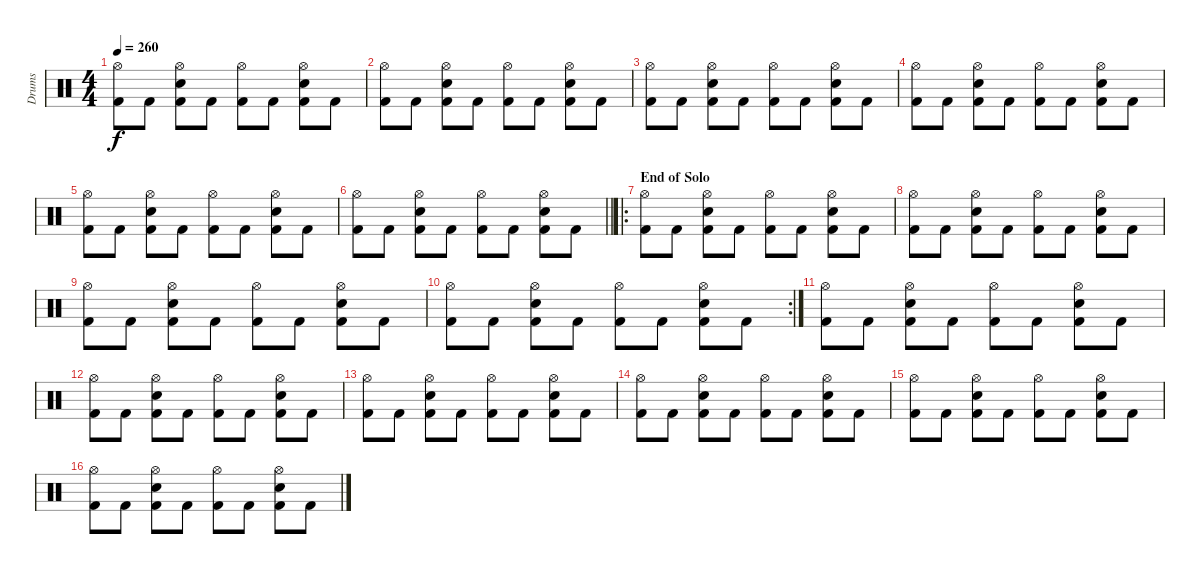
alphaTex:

\track ("Drums" "Drums") {instrument percussion}
\staff {score}
\articulation defaults
\ts (4 4)
\tempo 260
\clef neutral
\ks c
("Hi-Hat (open)" "Kick (hit) 2").8{dy f} "Kick (hit) 2".8 ("Hi-Hat (open)" "Snare (hit) 2" "Kick (hit) 2").8 "Kick (hit) 2".8 ("Hi-Hat (open)" "Kick (hit) 2").8 "Kick (hit) 2".8 ("Hi-Hat (open)" "Snare (hit) 2" "Kick (hit) 2").8 "Kick (hit) 2".8 |
("Hi-Hat (open)" "Kick (hit) 2").8 "Kick (hit) 2".8 ("Hi-Hat (open)" "Snare (hit) 2" "Kick (hit) 2").8 "Kick (hit) 2".8 ("Hi-Hat (open)" "Kick (hit) 2").8 "Kick (hit) 2".8 ("Hi-Hat (open)" "Snare (hit) 2" "Kick (hit) 2").8 "Kick (hit) 2".8 |
("Hi-Hat (open)" "Kick (hit) 2").8 "Kick (hit) 2".8 ("Hi-Hat (open)" "Snare (hit) 2" "Kick (hit) 2").8 "Kick (hit) 2".8 ("Hi-Hat (open)" "Kick (hit) 2").8 "Kick (hit) 2".8 ("Hi-Hat (open)" "Snare (hit) 2" "Kick (hit) 2").8 "Kick (hit) 2".8 |
("Hi-Hat (open)" "Kick (hit) 2").8 "Kick (hit) 2".8 ("Hi-Hat (open)" "Snare (hit) 2" "Kick (hit) 2").8 "Kick (hit) 2".8 ("Hi-Hat (open)" "Kick (hit) 2").8 "Kick (hit) 2".8 ("Hi-Hat (open)" "Snare (hit) 2" "Kick (hit) 2").8 "Kick (hit) 2".8 |
("Hi-Hat (open)" "Kick (hit) 2").8 "Kick (hit) 2".8 ("Hi-Hat (open)" "Snare (hit) 2" "Kick (hit) 2").8 "Kick (hit) 2".8 ("Hi-Hat (open)" "Kick (hit) 2").8 "Kick (hit) 2".8 ("Hi-Hat (open)" "Snare (hit) 2" "Kick (hit) 2").8 "Kick (hit) 2".8 |
\barLineRight lightlight
("Hi-Hat (open)" "Kick (hit) 2").8 "Kick (hit) 2".8 ("Hi-Hat (open)" "Snare (hit) 2" "Kick (hit) 2").8 "Kick (hit) 2".8 ("Hi-Hat (open)" "Kick (hit) 2").8 "Kick (hit) 2".8 ("Hi-Hat (open)" "Snare (hit) 2" "Kick (hit) 2").8 "Kick (hit) 2".8 |
\ro
\section ("" "End of Solo")
("Hi-Hat (open)" "Kick (hit) 2").8 "Kick (hit) 2".8 ("Hi-Hat (open)" "Snare (hit) 2" "Kick (hit) 2").8 "Kick (hit) 2".8 ("Hi-Hat (open)" "Kick (hit) 2").8 "Kick (hit) 2".8 ("Hi-Hat (open)" "Snare (hit) 2" "Kick (hit) 2").8 "Kick (hit) 2".8 |
("Hi-Hat (open)" "Kick (hit) 2").8 "Kick (hit) 2".8 ("Hi-Hat (open)" "Snare (hit) 2" "Kick (hit) 2").8 "Kick (hit) 2".8 ("Hi-Hat (open)" "Kick (hit) 2").8 "Kick (hit) 2".8 ("Hi-Hat (open)" "Snare (hit) 2" "Kick (hit) 2").8 "Kick (hit) 2".8 |
("Hi-Hat (open)" "Kick (hit) 2").8 "Kick (hit) 2".8 ("Hi-Hat (open)" "Snare (hit) 2" "Kick (hit) 2").8 "Kick (hit) 2".8 ("Hi-Hat (open)" "Kick (hit) 2").8 "Kick (hit) 2".8 ("Hi-Hat (open)" "Snare (hit) 2" "Kick (hit) 2").8 "Kick (hit) 2".8 |
\rc 2
("Hi-Hat (open)" "Kick (hit) 2").8 "Kick (hit) 2".8 ("Hi-Hat (open)" "Snare (hit) 2" "Kick (hit) 2").8 "Kick (hit) 2".8 ("Hi-Hat (open)" "Kick (hit) 2").8 "Kick (hit) 2".8 ("Hi-Hat (open)" "Snare (hit) 2" "Kick (hit) 2").8 "Kick (hit) 2".8 |
("Hi-Hat (open)" "Kick (hit) 2").8 "Kick (hit) 2".8 ("Hi-Hat (open)" "Snare (hit) 2" "Kick (hit) 2").8 "Kick (hit) 2".8 ("Hi-Hat (open)" "Kick (hit) 2").8 "Kick (hit) 2".8 ("Hi-Hat (open)" "Snare (hit) 2" "Kick (hit) 2").8 "Kick (hit) 2".8 |
("Hi-Hat (open)" "Kick (hit) 2").8 "Kick (hit) 2".8 ("Hi-Hat (open)" "Snare (hit) 2" "Kick (hit) 2").8 "Kick (hit) 2".8 ("Hi-Hat (open)" "Kick (hit) 2").8 "Kick (hit) 2".8 ("Hi-Hat (open)" "Snare (hit) 2" "Kick (hit) 2").8 "Kick (hit) 2".8 |
("Hi-Hat (open)" "Kick (hit) 2").8 "Kick (hit) 2".8 ("Hi-Hat (open)" "Snare (hit) 2" "Kick (hit) 2").8 "Kick (hit) 2".8 ("Hi-Hat (open)" "Kick (hit) 2").8 "Kick (hit) 2".8 ("Hi-Hat (open)" "Snare (hit) 2" "Kick (hit) 2").8 "Kick (hit) 2".8 |
("Hi-Hat (open)" "Kick (hit) 2").8 "Kick (hit) 2".8 ("Hi-Hat (open)" "Snare (hit) 2" "Kick (hit) 2").8 "Kick (hit) 2".8 ("Hi-Hat (open)" "Kick (hit) 2").8 "Kick (hit) 2".8 ("Hi-Hat (open)" "Snare (hit) 2" "Kick (hit) 2").8 "Kick (hit) 2".8 |
("Hi-Hat (open)" "Kick (hit) 2").8 "Kick (hit) 2".8 ("Hi-Hat (open)" "Snare (hit) 2" "Kick (hit) 2").8 "Kick (hit) 2".8 ("Hi-Hat (open)" "Kick (hit) 2").8 "Kick (hit) 2".8 ("Hi-Hat (open)" "Snare (hit) 2" "Kick (hit) 2").8 "Kick (hit) 2".8 |
("Hi-Hat (open)" "Kick (hit) 2").8 "Kick (hit) 2".8 ("Hi-Hat (open)" "Snare (hit) 2" "Kick (hit) 2").8 "Kick (hit) 2".8 ("Hi-Hat (open)" "Kick (hit) 2").8 "Kick (hit) 2".8 ("Hi-Hat (open)" "Snare (hit) 2" "Kick (hit) 2").8 "Kick (hit) 2".8
